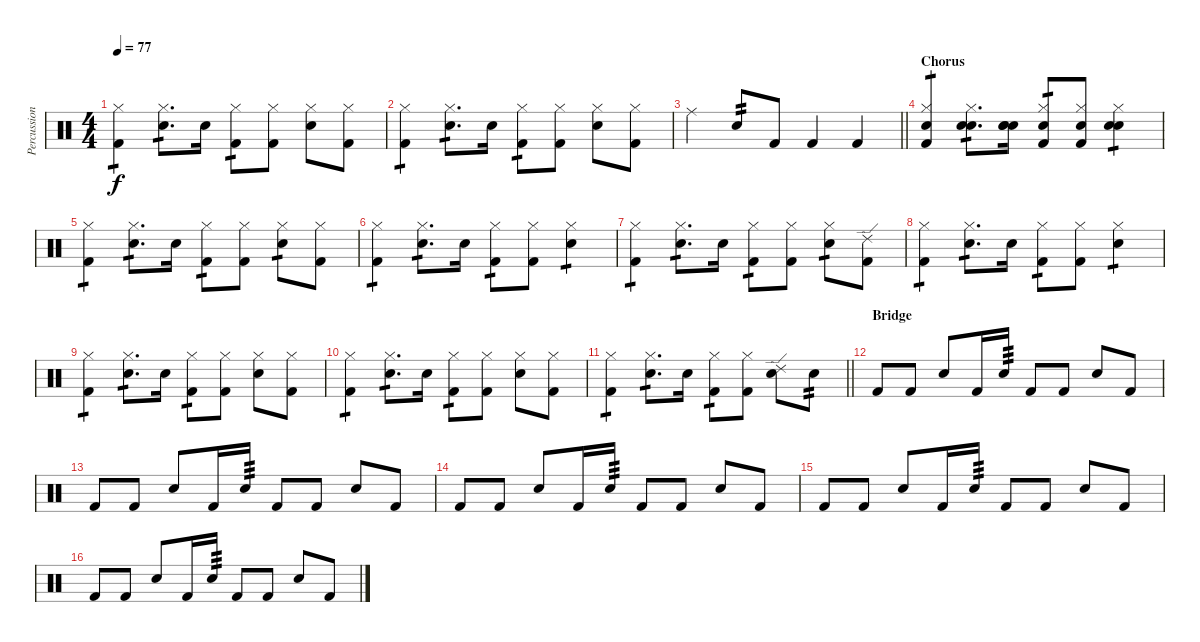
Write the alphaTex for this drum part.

\track ("Percussion" "Percussion") {instrument percussion}
\staff {score}
\articulation defaults
\ts (4 4)
\tempo 77
\clef neutral
\ks c
("Kick (hit) 2" "Hi-Hat (closed)").4{tp 1 dy f} ("Electric Snare (hit)" "Hi-Hat (closed)").8{d tp 1} "Electric Snare (hit)".16 ("Kick (hit) 2" "Hi-Hat (closed)").8{tp 1} ("Kick (hit) 2" "Hi-Hat (closed)").8 ("Electric Snare (hit)" "Hi-Hat (closed)").8 ("Kick (hit) 2" "Hi-Hat (closed)").8 |
("Kick (hit) 2" "Hi-Hat (closed)").4{tp 1} ("Electric Snare (hit)" "Hi-Hat (closed)").8{d tp 1} "Electric Snare (hit)".16 ("Kick (hit) 2" "Hi-Hat (closed)").8{tp 1} ("Kick (hit) 2" "Hi-Hat (closed)").8 ("Electric Snare (hit)" "Hi-Hat (closed)").8 ("Kick (hit) 2" "Hi-Hat (closed)").8 |
\barLineRight lightlight "Ride (middle)".4 "Electric Snare (hit)".8{tp 2} "Kick (hit) 2".8 "Kick (hit) 2".4 "Kick (hit) 2".4
|
\section ("" "Chorus")
("Kick (hit) 2" "Hi-Hat (closed)" "Snare (hit)").4{tp 1} ("Electric Snare (hit)" "Hi-Hat (closed)" "Snare (hit)").8{d tp 1} ("Electric Snare (hit)" "Snare (hit)" "Snare (hit)").16 ("Kick (hit) 2" "Hi-Hat (closed)" "Snare (hit)").8{tp 1} ("Kick (hit) 2" "Hi-Hat (closed)" "Snare (hit)").8 ("Electric Snare (hit)" "Hi-Hat (closed)" "Snare (hit)").4{tp 1} |
("Kick (hit) 2" "Hi-Hat (closed)").4{tp 1} ("Electric Snare (hit)" "Hi-Hat (closed)").8{d tp 1} "Electric Snare (hit)".16 ("Kick (hit) 2" "Hi-Hat (closed)").8{tp 1} ("Kick (hit) 2" "Hi-Hat (closed)").8 ("Electric Snare (hit)" "Hi-Hat (closed)").8{tp 1} ("Kick (hit) 2" "Hi-Hat (closed)").8 |
("Kick (hit) 2" "Hi-Hat (closed)").4{tp 1} ("Electric Snare (hit)" "Hi-Hat (closed)").8{d tp 1} "Electric Snare (hit)".16 ("Kick (hit) 2" "Hi-Hat (closed)").8{tp 1} ("Kick (hit) 2" "Hi-Hat (closed)").8 ("Electric Snare (hit)" "Hi-Hat (closed)").4{tp 1} |
("Kick (hit) 2" "Hi-Hat (closed)").4{tp 1} ("Electric Snare (hit)" "Hi-Hat (closed)").8{d tp 1} "Electric Snare (hit)".16 ("Kick (hit) 2" "Hi-Hat (closed)").8{tp 1} ("Kick (hit) 2" "Hi-Hat (closed)").8 ("Electric Snare (hit)" "Hi-Hat (closed)").8{tp 1} ("Kick (hit) 2" "Ride (edge) 2").8 |
("Kick (hit) 2" "Hi-Hat (closed)").4{tp 1} ("Electric Snare (hit)" "Hi-Hat (closed)").8{d tp 1} "Electric Snare (hit)".16 ("Kick (hit) 2" "Hi-Hat (closed)").8{tp 1} ("Kick (hit) 2" "Hi-Hat (closed)").8 ("Electric Snare (hit)" "Hi-Hat (closed)").4{tp 1} |
("Kick (hit) 2" "Hi-Hat (closed)").4{tp 1} ("Electric Snare (hit)" "Hi-Hat (closed)").8{d tp 1} "Electric Snare (hit)".16 ("Kick (hit) 2" "Hi-Hat (closed)").8{tp 1} ("Kick (hit) 2" "Hi-Hat (closed)").8 ("Electric Snare (hit)" "Hi-Hat (closed)").8 ("Kick (hit) 2" "Hi-Hat (closed)").8 |
("Kick (hit) 2" "Hi-Hat (closed)").4{tp 1} ("Electric Snare (hit)" "Hi-Hat (closed)").8{d tp 1} "Electric Snare (hit)".16 ("Kick (hit) 2" "Hi-Hat (closed)").8{tp 1} ("Kick (hit) 2" "Hi-Hat (closed)").8 ("Electric Snare (hit)" "Hi-Hat (closed)").8 ("Kick (hit) 2" "Hi-Hat (closed)").8 |
\barLineRight lightlight
("Kick (hit) 2" "Hi-Hat (closed)").4{tp 1} ("Electric Snare (hit)" "Hi-Hat (closed)").8{d tp 1} "Electric Snare (hit)".16 ("Kick (hit) 2" "Hi-Hat (closed)").8{tp 1} ("Kick (hit) 2" "Hi-Hat (closed)").8 ("Electric Snare (hit)" "Ride (edge) 2").8 "Electric Snare (hit)".8{tp 2} |
\section ("" "Bridge")
"Kick (hit) 2".8 "Kick (hit) 2".8 "Electric Snare (hit)".8 "Kick (hit) 2".16 "Electric Snare (hit)".16{tp 3} "Kick (hit) 2".8 "Kick (hit) 2".8 "Electric Snare (hit)".8 "Kick (hit) 2".8 |
"Kick (hit) 2".8 "Kick (hit) 2".8 "Electric Snare (hit)".8 "Kick (hit) 2".16 "Electric Snare (hit)".16{tp 3} "Kick (hit) 2".8 "Kick (hit) 2".8 "Electric Snare (hit)".8 "Kick (hit) 2".8 |
"Kick (hit) 2".8 "Kick (hit) 2".8 "Electric Snare (hit)".8 "Kick (hit) 2".16 "Electric Snare (hit)".16{tp 3} "Kick (hit) 2".8 "Kick (hit) 2".8 "Electric Snare (hit)".8 "Kick (hit) 2".8 |
"Kick (hit) 2".8 "Kick (hit) 2".8 "Electric Snare (hit)".8 "Kick (hit) 2".16 "Electric Snare (hit)".16{tp 3} "Kick (hit) 2".8 "Kick (hit) 2".8 "Electric Snare (hit)".8 "Kick (hit) 2".8 |
"Kick (hit) 2".8 "Kick (hit) 2".8 "Electric Snare (hit)".8 "Kick (hit) 2".16 "Electric Snare (hit)".16{tp 3} "Kick (hit) 2".8 "Kick (hit) 2".8 "Electric Snare (hit)".8 "Kick (hit) 2".8
